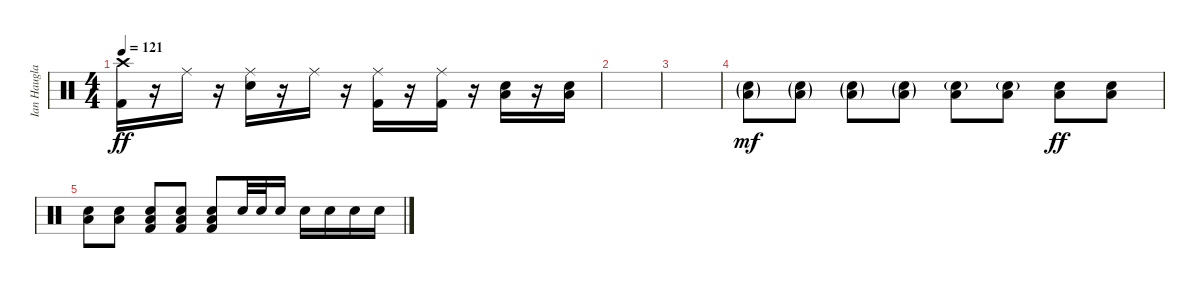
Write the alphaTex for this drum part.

\track ("Ian Haugland" "Ian Haugla") {instrument percussion}
\staff {score}
\articulation defaults
\ts (4 4)
\tempo 121
\clef neutral
\ks c
("Crash high (hit)" "Kick (hit) 2").16{dy ff} r.16 "Ride (middle)".16 r.16 ("Ride (middle)" "Electric Snare (hit)").16 r.16 "Ride (middle)".16 r.16 ("Ride (middle)" "Kick (hit) 2").16 r.16 ("Ride (middle)" "Kick (hit) 2").16 r.16 ("Low Floor Tom (hit)" "Electric Snare (hit)").16 r.16 ("Low Floor Tom (hit)" "Electric Snare (hit)").16 |
|
|
("Low Tom (hit)"{g} "Electric Snare (hit)"{g}).8{dy mf} ("Low Tom (hit)"{g} "Electric Snare (hit)"{g}).8 ("Low Tom (hit)"{g} "Electric Snare (hit)"{g}).8 ("Low Tom (hit)"{g} "Electric Snare (hit)"{g}).8 ("Low Tom (hit)" "Electric Snare (hit)"{g}).8 ("Low Tom (hit)" "Electric Snare (hit)"{g}).8 ("Low Tom (hit)" "Electric Snare (hit)").8{dy ff} ("Low Tom (hit)" "Electric Snare (hit)").8 |
("Low Tom (hit)" "Electric Snare (hit)").8 ("Low Tom (hit)" "Electric Snare (hit)").8 ("Low Tom (hit)" "Electric Snare (hit)" "Kick (hit) 2").8 ("Low Tom (hit)" "Electric Snare (hit)" "Kick (hit) 2").8 ("Low Tom (hit)" "Electric Snare (hit)" "Kick (hit) 2").8 "Electric Snare (hit)".32 "Electric Snare (hit)".32 "Electric Snare (hit)".16 "Electric Snare (hit)".16 "Electric Snare (hit)".16 "Electric Snare (hit)".16 "Electric Snare (hit)".16
